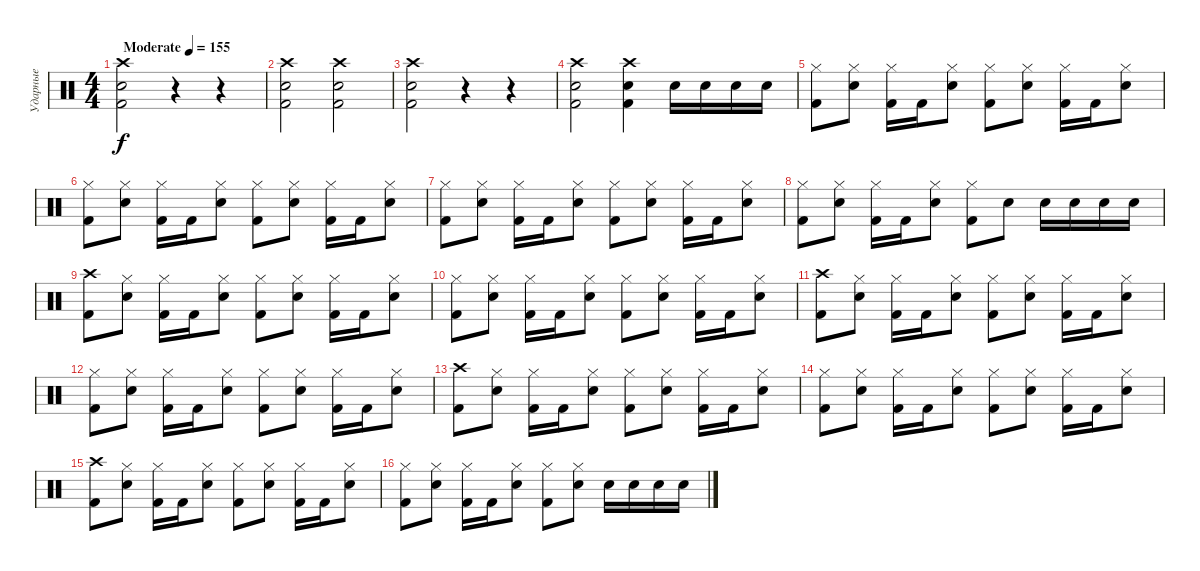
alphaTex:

\track ("Ударные" "Ударные") {instrument percussion}
\staff {score}
\articulation defaults
\ts (4 4)
\tempo (155 "Moderate")
\clef neutral
\ks c
("Crash high (hit)" "Electric Snare (hit)" "Kick (hit) 2").2{dy f} r.4 r.4 |
("Crash high (hit)" "Electric Snare (hit)" "Kick (hit) 2").2 ("Crash high (hit)" "Electric Snare (hit)" "Kick (hit) 2").2 |
("Crash high (hit)" "Electric Snare (hit)" "Kick (hit) 2").2 r.4 r.4 |
("Crash high (hit)" "Electric Snare (hit)" "Kick (hit) 2").2 ("Crash high (hit)" "Electric Snare (hit)" "Kick (hit) 2").4 "Electric Snare (hit)".16 "Electric Snare (hit)".16 "Electric Snare (hit)".16 "Electric Snare (hit)".16 |
("Hi-Hat (closed)" "Kick (hit) 2").8 ("Hi-Hat (closed)" "Electric Snare (hit)").8 ("Hi-Hat (closed)" "Kick (hit) 2").16 "Kick (hit) 2".16 ("Hi-Hat (closed)" "Electric Snare (hit)").8 ("Hi-Hat (closed)" "Kick (hit) 2").8 ("Hi-Hat (closed)" "Electric Snare (hit)").8 ("Hi-Hat (closed)" "Kick (hit) 2").16 "Kick (hit) 2".16 ("Hi-Hat (closed)" "Electric Snare (hit)").8 |
("Hi-Hat (closed)" "Kick (hit) 2").8 ("Hi-Hat (closed)" "Electric Snare (hit)").8 ("Hi-Hat (closed)" "Kick (hit) 2").16 "Kick (hit) 2".16 ("Hi-Hat (closed)" "Electric Snare (hit)").8 ("Hi-Hat (closed)" "Kick (hit) 2").8 ("Hi-Hat (closed)" "Electric Snare (hit)").8 ("Hi-Hat (closed)" "Kick (hit) 2").16 "Kick (hit) 2".16 ("Hi-Hat (closed)" "Electric Snare (hit)").8 |
("Hi-Hat (closed)" "Kick (hit) 2").8 ("Hi-Hat (closed)" "Electric Snare (hit)").8 ("Hi-Hat (closed)" "Kick (hit) 2").16 "Kick (hit) 2".16 ("Hi-Hat (closed)" "Electric Snare (hit)").8 ("Hi-Hat (closed)" "Kick (hit) 2").8 ("Hi-Hat (closed)" "Electric Snare (hit)").8 ("Hi-Hat (closed)" "Kick (hit) 2").16 "Kick (hit) 2".16 ("Hi-Hat (closed)" "Electric Snare (hit)").8 |
("Hi-Hat (closed)" "Kick (hit) 2").8 ("Hi-Hat (closed)" "Electric Snare (hit)").8 ("Hi-Hat (closed)" "Kick (hit) 2").16 "Kick (hit) 2".16 ("Hi-Hat (closed)" "Electric Snare (hit)").8 ("Hi-Hat (closed)" "Kick (hit) 2").8 "Electric Snare (hit)".8 "Electric Snare (hit)".16 "Electric Snare (hit)".16 "Electric Snare (hit)".16 "Electric Snare (hit)".16 |
("Crash high (hit)" "Kick (hit) 2").8 ("Hi-Hat (closed)" "Electric Snare (hit)").8 ("Hi-Hat (closed)" "Kick (hit) 2").16 "Kick (hit) 2".16 ("Hi-Hat (closed)" "Electric Snare (hit)").8 ("Hi-Hat (closed)" "Kick (hit) 2").8 ("Hi-Hat (closed)" "Electric Snare (hit)").8 ("Hi-Hat (closed)" "Kick (hit) 2").16 "Kick (hit) 2".16 ("Hi-Hat (closed)" "Electric Snare (hit)").8 |
("Hi-Hat (closed)" "Kick (hit) 2").8 ("Hi-Hat (closed)" "Electric Snare (hit)").8 ("Hi-Hat (closed)" "Kick (hit) 2").16 "Kick (hit) 2".16 ("Hi-Hat (closed)" "Electric Snare (hit)").8 ("Hi-Hat (closed)" "Kick (hit) 2").8 ("Hi-Hat (closed)" "Electric Snare (hit)").8 ("Hi-Hat (closed)" "Kick (hit) 2").16 "Kick (hit) 2".16 ("Hi-Hat (closed)" "Electric Snare (hit)").8 |
("Crash high (hit)" "Kick (hit) 2").8 ("Hi-Hat (closed)" "Electric Snare (hit)").8 ("Hi-Hat (closed)" "Kick (hit) 2").16 "Kick (hit) 2".16 ("Hi-Hat (closed)" "Electric Snare (hit)").8 ("Hi-Hat (closed)" "Kick (hit) 2").8 ("Hi-Hat (closed)" "Electric Snare (hit)").8 ("Hi-Hat (closed)" "Kick (hit) 2").16 "Kick (hit) 2".16 ("Hi-Hat (closed)" "Electric Snare (hit)").8 |
("Hi-Hat (closed)" "Kick (hit) 2").8 ("Hi-Hat (closed)" "Electric Snare (hit)").8 ("Hi-Hat (closed)" "Kick (hit) 2").16 "Kick (hit) 2".16 ("Hi-Hat (closed)" "Electric Snare (hit)").8 ("Hi-Hat (closed)" "Kick (hit) 2").8 ("Hi-Hat (closed)" "Electric Snare (hit)").8 ("Hi-Hat (closed)" "Kick (hit) 2").16 "Kick (hit) 2".16 ("Hi-Hat (closed)" "Electric Snare (hit)").8 |
("Crash high (hit)" "Kick (hit) 2").8 ("Hi-Hat (closed)" "Electric Snare (hit)").8 ("Hi-Hat (closed)" "Kick (hit) 2").16 "Kick (hit) 2".16 ("Hi-Hat (closed)" "Electric Snare (hit)").8 ("Hi-Hat (closed)" "Kick (hit) 2").8 ("Hi-Hat (closed)" "Electric Snare (hit)").8 ("Hi-Hat (closed)" "Kick (hit) 2").16 "Kick (hit) 2".16 ("Hi-Hat (closed)" "Electric Snare (hit)").8 |
("Hi-Hat (closed)" "Kick (hit) 2").8 ("Hi-Hat (closed)" "Electric Snare (hit)").8 ("Hi-Hat (closed)" "Kick (hit) 2").16 "Kick (hit) 2".16 ("Hi-Hat (closed)" "Electric Snare (hit)").8 ("Hi-Hat (closed)" "Kick (hit) 2").8 ("Hi-Hat (closed)" "Electric Snare (hit)").8 ("Hi-Hat (closed)" "Kick (hit) 2").16 "Kick (hit) 2".16 ("Hi-Hat (closed)" "Electric Snare (hit)").8 |
("Crash high (hit)" "Kick (hit) 2").8 ("Hi-Hat (closed)" "Electric Snare (hit)").8 ("Hi-Hat (closed)" "Kick (hit) 2").16 "Kick (hit) 2".16 ("Hi-Hat (closed)" "Electric Snare (hit)").8 ("Hi-Hat (closed)" "Kick (hit) 2").8 ("Hi-Hat (closed)" "Electric Snare (hit)").8 ("Hi-Hat (closed)" "Kick (hit) 2").16 "Kick (hit) 2".16 ("Hi-Hat (closed)" "Electric Snare (hit)").8 |
("Hi-Hat (closed)" "Kick (hit) 2").8 ("Hi-Hat (closed)" "Electric Snare (hit)").8 ("Hi-Hat (closed)" "Kick (hit) 2").16 "Kick (hit) 2".16 ("Hi-Hat (closed)" "Electric Snare (hit)").8 ("Hi-Hat (closed)" "Kick (hit) 2").8 ("Hi-Hat (closed)" "Electric Snare (hit)").8 "Electric Snare (hit)".16 "Electric Snare (hit)".16 "Electric Snare (hit)".16 "Electric Snare (hit)".16
